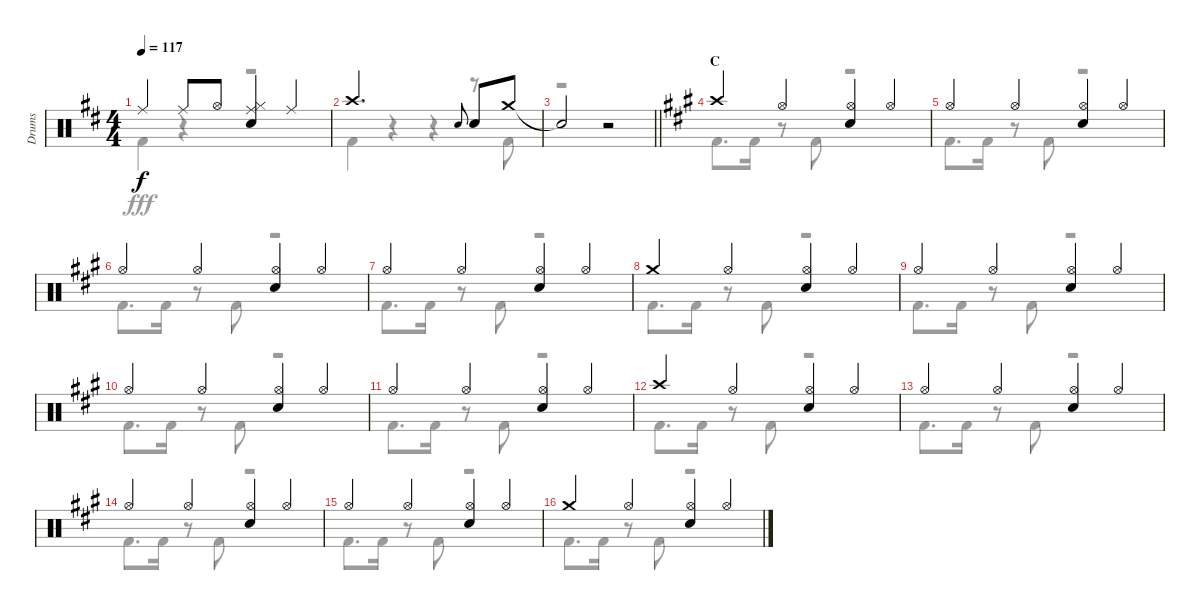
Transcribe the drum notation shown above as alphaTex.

\track ("Drums" "Drums") {instrument percussion}
\staff {score}
\articulation defaults
\voice
\ts (4 4)
\tempo 117
\clef neutral
\ks d "Ride (middle)".4{dy f} "Ride (middle)".8 "Hi-Hat (open)".8
("Ride (middle)" "Hi-Hat (closed)" "Snare (hit) 2").4 "Ride (middle)".4 |
"Crash high (hit)".2{d} "Snare (hit) 2".8{gr onbeat} "Snare (hit) 2".8 "Crash medium (hit)".8 |
\barLineRight lightlight "Snare (hit)"{t}.2
r.2 |
\section ("" "C")
\ks a "Crash high (hit)".4 "Hi-Hat (open)".4
("Hi-Hat (open)" "Snare (hit) 2").4 "Hi-Hat (open)".4 |
"Hi-Hat (open)".4 "Hi-Hat (open)".4 ("Hi-Hat (open)" "Snare (hit) 2").4 "Hi-Hat (open)".4 |
"Hi-Hat (open)".4 "Hi-Hat (open)".4 ("Hi-Hat (open)" "Snare (hit) 2").4 "Hi-Hat (open)".4 |
"Hi-Hat (open)".4 "Hi-Hat (open)".4 ("Hi-Hat (open)" "Snare (hit) 2").4 "Hi-Hat (open)".4 |
"Crash medium (hit)".4 "Hi-Hat (open)".4 ("Hi-Hat (open)" "Snare (hit) 2").4 "Hi-Hat (open)".4 |
"Hi-Hat (open)".4 "Hi-Hat (open)".4 ("Hi-Hat (open)" "Snare (hit) 2").4 "Hi-Hat (open)".4 |
"Hi-Hat (open)".4 "Hi-Hat (open)".4 ("Hi-Hat (open)" "Snare (hit) 2").4 "Hi-Hat (open)".4 |
"Hi-Hat (open)".4 "Hi-Hat (open)".4 ("Hi-Hat (open)" "Snare (hit) 2").4 "Hi-Hat (open)".4 |
"Crash high (hit)".4 "Hi-Hat (open)".4 ("Hi-Hat (open)" "Snare (hit) 2").4 "Hi-Hat (open)".4 |
"Hi-Hat (open)".4 "Hi-Hat (open)".4 ("Hi-Hat (open)" "Snare (hit) 2").4 "Hi-Hat (open)".4 |
"Hi-Hat (open)".4 "Hi-Hat (open)".4 ("Hi-Hat (open)" "Snare (hit) 2").4 "Hi-Hat (open)".4 |
"Hi-Hat (open)".4 "Hi-Hat (open)".4 ("Hi-Hat (open)" "Snare (hit) 2").4 "Hi-Hat (open)".4 |
"Crash medium (hit)".4 "Hi-Hat (open)".4 ("Hi-Hat (open)" "Snare (hit) 2").4 "Hi-Hat (open)".4
\voice
\clef neutral
\ottava regular
\simile none
\ks d "Kick (hit) 2".4{dy fff}
r.4 r.2 |
"Kick (hit) 2".4 r.4 r.4 r.8 "Kick (hit) 2".8 |
\barLineRight lightlight
r.1 |
\ks a "Kick (hit) 2".8{d} "Kick (hit) 2".16
r.8 "Kick (hit) 2".8 r.2 |
"Kick (hit) 2".8{d} "Kick (hit) 2".16 r.8 "Kick (hit) 2".8 r.2 |
"Kick (hit) 2".8{d} "Kick (hit) 2".16 r.8 "Kick (hit) 2".8 r.2 |
"Kick (hit) 2".8{d} "Kick (hit) 2".16 r.8 "Kick (hit) 2".8 r.2 |
"Kick (hit) 2".8{d} "Kick (hit) 2".16 r.8 "Kick (hit) 2".8 r.2 |
"Kick (hit) 2".8{d} "Kick (hit) 2".16 r.8 "Kick (hit) 2".8 r.2 |
"Kick (hit) 2".8{d} "Kick (hit) 2".16 r.8 "Kick (hit) 2".8 r.2 |
"Kick (hit) 2".8{d} "Kick (hit) 2".16 r.8 "Kick (hit) 2".8 r.2 |
"Kick (hit) 2".8{d} "Kick (hit) 2".16 r.8 "Kick (hit) 2".8 r.2 |
"Kick (hit) 2".8{d} "Kick (hit) 2".16 r.8 "Kick (hit) 2".8 r.2 |
"Kick (hit) 2".8{d} "Kick (hit) 2".16 r.8 "Kick (hit) 2".8 r.2 |
"Kick (hit) 2".8{d} "Kick (hit) 2".16 r.8 "Kick (hit) 2".8 r.2 |
"Kick (hit) 2".8{d} "Kick (hit) 2".16 r.8 "Kick (hit) 2".8 r.2
